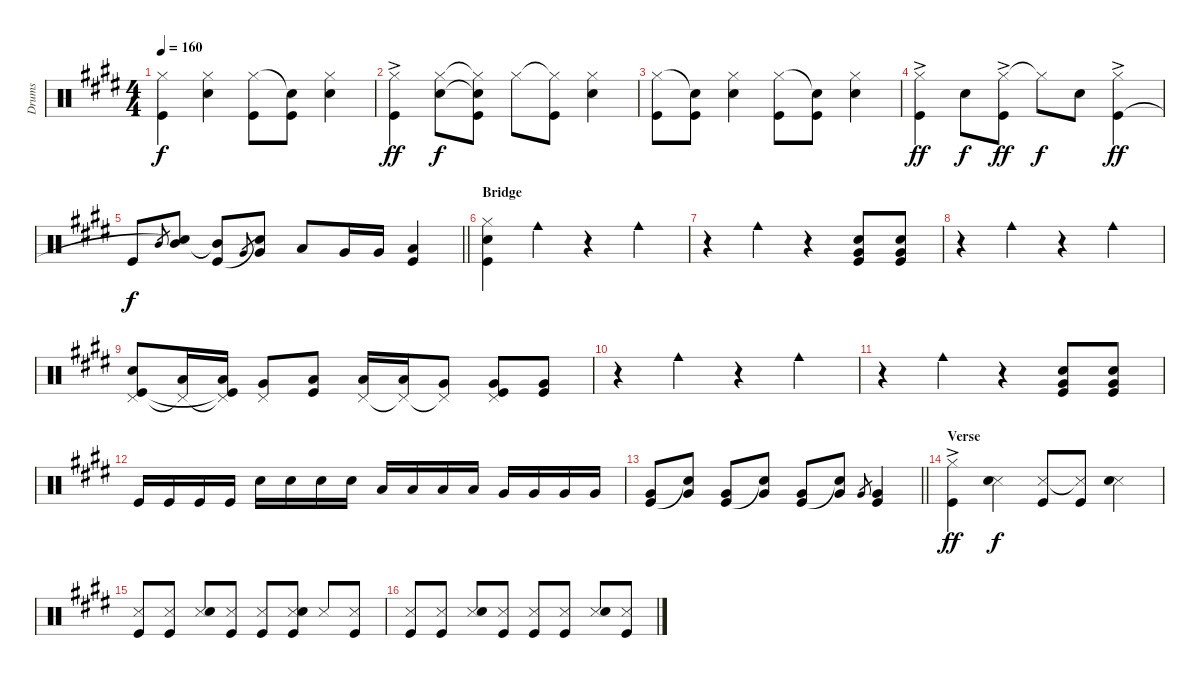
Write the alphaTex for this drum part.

\track ("Drums" "Drums") {instrument percussion}
\staff {score}
\articulation defaults
\ts (4 4)
\tempo 160
\clef neutral
\ks e
("Hi-Hat (closed)" "Kick (hit)").4{dy f} ("Hi-Hat (closed)" "Snare (hit) 2").4 ("Hi-Hat (closed)" "Kick (hit)").8 ("Snare (hit)"{t} "Kick (hit)").8 ("Hi-Hat (closed)" "Snare (hit) 2").4 |
("Hi-Hat (closed)"{ac} "Kick (hit)").4{dy ff} ("Hi-Hat (closed)" "Snare (hit) 2").8{dy f} ("Hi-Hat (closed)"{t} "Snare (hit)"{t} "Kick (hit)").8 "Hi-Hat (closed)".8 ("Hi-Hat (closed)"{t} "Kick (hit)").8 ("Hi-Hat (closed)" "Snare (hit) 2").4 |
("Hi-Hat (closed)" "Kick (hit)").8 ("Snare (hit)"{t} "Kick (hit)").8 ("Hi-Hat (closed)" "Snare (hit) 2").4 ("Hi-Hat (closed)" "Kick (hit)").8 ("Snare (hit)"{t} "Kick (hit)").8 ("Hi-Hat (closed)" "Snare (hit) 2").4 |
("Hi-Hat (closed)"{ac} "Kick (hit)").4{dy ff} "Snare (hit) 2".8{dy f} ("Hi-Hat (closed)"{ac} "Kick (hit)").8{dy ff} "Hi-Hat (closed)"{t}.8{dy f} "Snare (hit) 2".8 ("Hi-Hat (closed)"{ac} "Kick (hit)").4{dy ff} |
\barLineRight lightlight "Kick (hit)".8{dy f} "Mid Tom (hit)".8{gr}
("Mid Tom (hit)" "Snare (hit)"{t}).8 ("Mid Tom (hit)"{t} "Kick (hit)").8 "Very Low Tom (hit)".8{gr} ("Very Low Tom (hit)" "Snare (hit)"{t}).8 "Low Tom (hit)".8 "Very Low Tom (hit)".16 "Very Low Tom (hit)".16 ("Low Floor Tom (hit)" "Kick (hit)").4 |
\section ("" "Bridge")
("Hi-Hat (closed)" "Snare (hit) 2" "Kick (hit)").4 "Cowbell medium (hit)".4 r.4 "Cowbell medium (hit)".4 |
r.4 "Cowbell medium (hit)".4 r.4 ("Snare (hit) 2" "Very Low Tom (hit)" "Kick (hit)").8 ("Snare (hit) 2" "Very Low Tom (hit)" "Kick (hit)").8 |
r.4 "Cowbell medium (hit)".4 r.4 "Cowbell medium (hit)".4 |
("Snare (hit) 2" "Pedal Hi-Hat (hit)" "Kick (hit)").8 ("Low Tom (hit)" "Pedal Hi-Hat (hit)"{t}).16 ("Low Tom (hit)" "Pedal Hi-Hat (hit)"{t} "Kick (hit)"{t}).16 ("Very Low Tom (hit)" "Pedal Hi-Hat (hit)").8 ("Low Tom (hit)" "Kick (hit)").8 ("Low Tom (hit)" "Pedal Hi-Hat (hit)").16 ("Low Tom (hit)" "Pedal Hi-Hat (hit)"{t}).16 ("Very Low Tom (hit)" "Pedal Hi-Hat (hit)"{t}).8 ("Pedal Hi-Hat (hit)" "Very Low Tom (hit)" "Kick (hit)").8 ("Very Low Tom (hit)" "Kick (hit)").8 |
r.4 "Cowbell medium (hit)".4 r.4 "Cowbell medium (hit)".4 |
r.4 "Cowbell medium (hit)".4 r.4 ("Snare (hit) 2" "Very Low Tom (hit)" "Kick (hit)").8 ("Snare (hit) 2" "Very Low Tom (hit)" "Kick (hit)").8 |
"Kick (hit)".16 "Kick (hit)".16 "Kick (hit)".16 "Kick (hit)".16 "Snare (hit) 2".16 "Snare (hit) 2".16 "Snare (hit) 2".16 "Snare (hit) 2".16 "Low Tom (hit)".16 "Low Tom (hit)".16 "Low Tom (hit)".16 "Low Tom (hit)".16 "Very Low Tom (hit)".16 "Very Low Tom (hit)".16 "Very Low Tom (hit)".16 "Very Low Tom (hit)".16 |
\barLineRight lightlight
("Very Low Tom (hit)" "Kick (hit)").8 ("Very Low Tom (hit)" "Snare (hit)"{t}).8 ("Very Low Tom (hit)" "Kick (hit)").8 ("Very Low Tom (hit)" "Snare (hit)"{t}).8 ("Very Low Tom (hit)" "Kick (hit)").8 ("Very Low Tom (hit)" "Snare (hit)"{t}).8 "Very Low Tom (hit)".8{gr} ("Very Low Tom (hit)" "Kick (hit)").4 |
\section ("" "Verse")
("Hi-Hat (closed)"{ac} "Kick (hit)").4{dy ff} ("Snare (side stick) 3" "Snare (hit) 2").4{dy f} ("Snare (side stick) 3" "Kick (hit)").8 ("Snare (side stick) 3"{t} "Kick (hit)").8 ("Snare (side stick) 3" "Snare (hit) 2").4 |
("Snare (side stick) 3" "Kick (hit)").8 ("Snare (side stick) 3" "Kick (hit)").8 ("Snare (side stick) 3" "Snare (hit) 2").8 ("Snare (side stick) 3" "Kick (hit)").8 ("Snare (side stick) 3" "Kick (hit)").8 ("Snare (side stick) 3" "Snare (hit) 2" "Kick (hit)").8 "Snare (side stick) 3".8 ("Snare (side stick) 3" "Kick (hit)").8 |
("Snare (side stick) 3" "Kick (hit)").8 ("Snare (side stick) 3" "Kick (hit)").8 ("Snare (side stick) 3" "Snare (hit) 2").8 ("Snare (side stick) 3" "Kick (hit)").8 ("Snare (side stick) 3" "Kick (hit)").8 ("Snare (side stick) 3" "Kick (hit)").8 ("Snare (side stick) 3" "Snare (hit) 2").8 ("Snare (side stick) 3" "Kick (hit)").8
